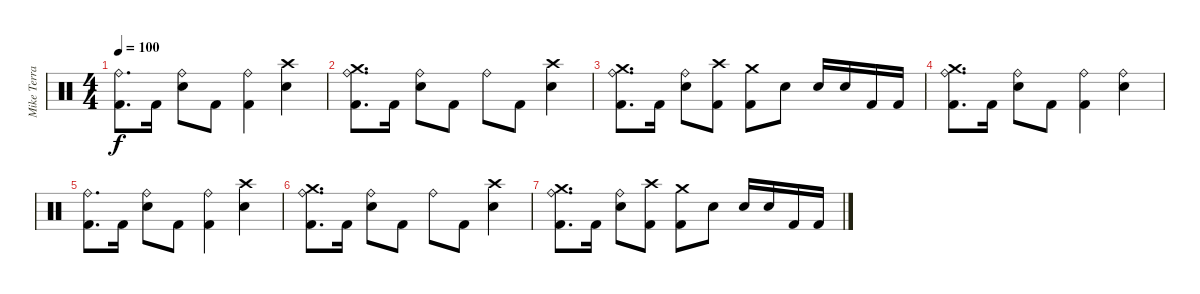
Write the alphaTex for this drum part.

\track ("Mike Terrana" "Mike Terra") {instrument percussion}
\staff {score}
\articulation defaults
\ts (4 4)
\tempo 100
\clef neutral
\ks c
("Ride (bell)" "Kick (hit) 2").8{d dy f} "Kick (hit) 2".16 ("Ride (bell)" "Snare (hit) 2").8 "Kick (hit) 2".8 ("Ride (bell)" "Kick (hit) 2").4 ("Crash high (hit)" "Snare (hit) 2").4 |
("Crash medium (hit)" "Ride (bell)" "Kick (hit) 2").8{d} "Kick (hit) 2".16 ("Ride (bell)" "Snare (hit) 2").8 "Kick (hit) 2".8 "Ride (bell)".8 "Kick (hit) 2".8 ("Crash high (hit)" "Snare (hit) 2").4 |
("Crash medium (hit)" "Ride (bell)" "Kick (hit) 2").8{d} "Kick (hit) 2".16 ("Ride (bell)" "Snare (hit) 2").8 ("Crash high (hit)" "Kick (hit) 2").8 ("Crash medium (hit)" "Kick (hit) 2").8 "Snare (hit) 2".8 "Snare (hit) 2".16 "Snare (hit) 2".16 "Kick (hit) 2".16 "Kick (hit) 2".16 |
("Crash medium (hit)" "Ride (bell)" "Kick (hit) 2").8{d} "Kick (hit) 2".16 ("Ride (bell)" "Snare (hit) 2").8 "Kick (hit) 2".8 ("Ride (bell)" "Kick (hit) 2").4 ("Ride (bell)" "Snare (hit) 2").4 |
("Ride (bell)" "Kick (hit) 2").8{d} "Kick (hit) 2".16 ("Ride (bell)" "Snare (hit) 2").8 "Kick (hit) 2".8 ("Ride (bell)" "Kick (hit) 2").4 ("Crash high (hit)" "Snare (hit) 2").4 |
("Crash medium (hit)" "Ride (bell)" "Kick (hit) 2").8{d} "Kick (hit) 2".16 ("Ride (bell)" "Snare (hit) 2").8 "Kick (hit) 2".8 "Ride (bell)".8 "Kick (hit) 2".8 ("Crash high (hit)" "Snare (hit) 2").4 |
("Crash medium (hit)" "Ride (bell)" "Kick (hit) 2").8{d} "Kick (hit) 2".16 ("Ride (bell)" "Snare (hit) 2").8 ("Crash high (hit)" "Kick (hit) 2").8 ("Crash medium (hit)" "Kick (hit) 2").8 "Snare (hit) 2".8 "Snare (hit) 2".16 "Snare (hit) 2".16 "Kick (hit) 2".16 "Kick (hit) 2".16
